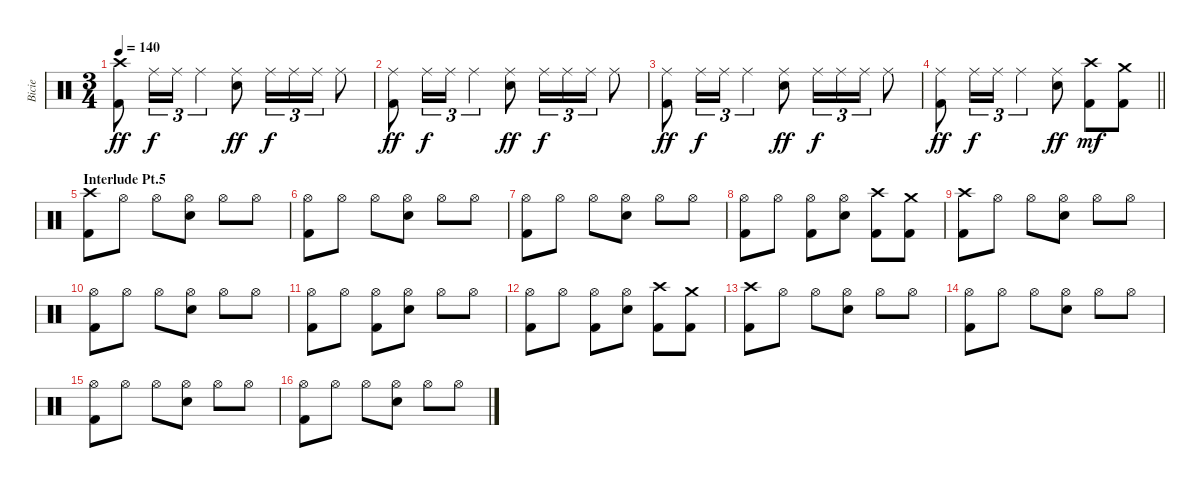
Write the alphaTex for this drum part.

\track ("Bicie" "Bicie") {instrument percussion}
\staff {score}
\articulation defaults
\ts (3 4)
\tempo 140
\clef neutral
\ks c
("Crash high (hit)" "Kick (hit) 2").8{dy ff} "Ride (middle)".16{tu (3 2) dy f} "Ride (middle)".16{tu (3 2)} "Ride (middle)".4{tu (3 2)} ("Ride (middle)" "Snare (hit) 2").8{dy ff} "Ride (middle)".16{tu (3 2) dy f} "Ride (middle)".16{tu (3 2)} "Ride (middle)".16{tu (3 2)} "Ride (middle)".8 |
("Ride (middle)" "Kick (hit) 2").8{dy ff} "Ride (middle)".16{tu (3 2) dy f} "Ride (middle)".16{tu (3 2)} "Ride (middle)".4{tu (3 2)} ("Ride (middle)" "Snare (hit) 2").8{dy ff} "Ride (middle)".16{tu (3 2) dy f} "Ride (middle)".16{tu (3 2)} "Ride (middle)".16{tu (3 2)} "Ride (middle)".8 |
("Ride (middle)" "Kick (hit) 2").8{dy ff} "Ride (middle)".16{tu (3 2) dy f} "Ride (middle)".16{tu (3 2)} "Ride (middle)".4{tu (3 2)} ("Ride (middle)" "Snare (hit) 2").8{dy ff} "Ride (middle)".16{tu (3 2) dy f} "Ride (middle)".16{tu (3 2)} "Ride (middle)".16{tu (3 2)} "Ride (middle)".8 |
\barLineRight lightlight
("Ride (middle)" "Kick (hit) 2").8{dy ff} "Ride (middle)".16{tu (3 2) dy f} "Ride (middle)".16{tu (3 2)} "Ride (middle)".4{tu (3 2)} ("Ride (middle)" "Snare (hit) 2").8{dy ff} ("Crash high (hit)" "Kick (hit) 2").8{dy mf} ("Crash medium (hit)" "Kick (hit) 2").8 |
\section ("" "Interlude Pt.5")
("Crash high (hit)" "Kick (hit) 2").8 "Hi-Hat (open)".8 "Hi-Hat (open)".8 ("Hi-Hat (open)" "Snare (hit) 2").8 "Hi-Hat (open)".8 "Hi-Hat (open)".8 |
("Hi-Hat (open)" "Kick (hit) 2").8 "Hi-Hat (open)".8 "Hi-Hat (open)".8 ("Hi-Hat (open)" "Snare (hit) 2").8 "Hi-Hat (open)".8 "Hi-Hat (open)".8 |
("Hi-Hat (open)" "Kick (hit) 2").8 "Hi-Hat (open)".8 "Hi-Hat (open)".8 ("Hi-Hat (open)" "Snare (hit) 2").8 "Hi-Hat (open)".8 "Hi-Hat (open)".8 |
("Hi-Hat (open)" "Kick (hit) 2").8 "Hi-Hat (open)".8 ("Hi-Hat (open)" "Kick (hit) 2").8 ("Hi-Hat (open)" "Snare (hit) 2").8 ("Crash high (hit)" "Kick (hit) 2").8 ("Crash medium (hit)" "Kick (hit) 2").8 |
("Crash high (hit)" "Kick (hit) 2").8 "Hi-Hat (open)".8 "Hi-Hat (open)".8 ("Hi-Hat (open)" "Snare (hit) 2").8 "Hi-Hat (open)".8 "Hi-Hat (open)".8 |
("Hi-Hat (open)" "Kick (hit) 2").8 "Hi-Hat (open)".8 "Hi-Hat (open)".8 ("Hi-Hat (open)" "Snare (hit) 2").8 "Hi-Hat (open)".8 "Hi-Hat (open)".8 |
("Hi-Hat (open)" "Kick (hit) 2").8 "Hi-Hat (open)".8 ("Hi-Hat (open)" "Kick (hit) 2").8 ("Hi-Hat (open)" "Snare (hit) 2").8 "Hi-Hat (open)".8 "Hi-Hat (open)".8 |
("Hi-Hat (open)" "Kick (hit) 2").8 "Hi-Hat (open)".8 ("Hi-Hat (open)" "Kick (hit) 2").8 ("Hi-Hat (open)" "Snare (hit) 2").8 ("Crash high (hit)" "Kick (hit) 2").8 ("Crash medium (hit)" "Kick (hit) 2").8 |
("Crash high (hit)" "Kick (hit) 2").8 "Hi-Hat (open)".8 "Hi-Hat (open)".8 ("Hi-Hat (open)" "Snare (hit) 2").8 "Hi-Hat (open)".8 "Hi-Hat (open)".8 |
("Hi-Hat (open)" "Kick (hit) 2").8 "Hi-Hat (open)".8 "Hi-Hat (open)".8 ("Hi-Hat (open)" "Snare (hit) 2").8 "Hi-Hat (open)".8 "Hi-Hat (open)".8 |
("Hi-Hat (open)" "Kick (hit) 2").8 "Hi-Hat (open)".8 "Hi-Hat (open)".8 ("Hi-Hat (open)" "Snare (hit) 2").8 "Hi-Hat (open)".8 "Hi-Hat (open)".8 |
("Hi-Hat (open)" "Kick (hit) 2").8 "Hi-Hat (open)".8 "Hi-Hat (open)".8 ("Hi-Hat (open)" "Snare (hit) 2").8 "Hi-Hat (open)".8 "Hi-Hat (open)".8
